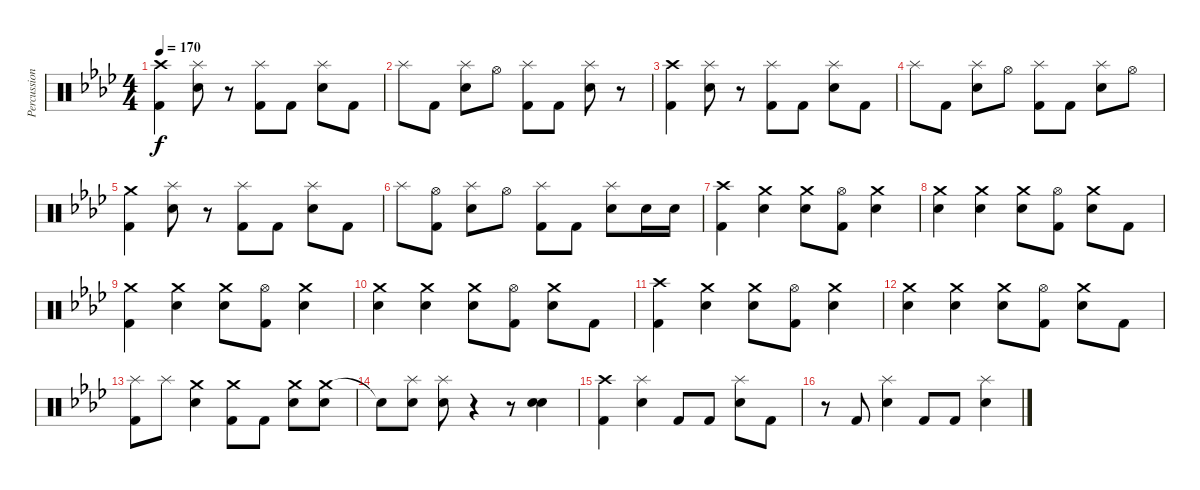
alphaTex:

\track ("Percussion" "Percussion") {instrument percussion}
\staff {score}
\articulation defaults
\ts (4 4)
\tempo 170
\clef neutral
\ks ab
("Crash high (hit)" "Kick (hit) 2").4{dy f} ("Splash (hit)" "Electric Snare (hit)").8 r.8 ("Splash (hit)" "Kick (hit) 2").8 "Kick (hit) 2".8 ("Splash (hit)" "Electric Snare (hit)").8 "Kick (hit) 2".8 |
"Splash (hit)".8 "Kick (hit) 2".8 ("Splash (hit)" "Electric Snare (hit)").8 "Hi-Hat (open)".8 ("Splash (hit)" "Kick (hit) 2").8 "Kick (hit) 2".8 ("Splash (hit)" "Electric Snare (hit)").8 r.8 |
("Crash high (hit)" "Kick (hit) 2").4 ("Splash (hit)" "Electric Snare (hit)").8 r.8 ("Splash (hit)" "Kick (hit) 2").8 "Kick (hit) 2".8 ("Splash (hit)" "Electric Snare (hit)").8 "Kick (hit) 2".8 |
"Splash (hit)".8 "Kick (hit) 2".8 ("Splash (hit)" "Electric Snare (hit)").8 "Hi-Hat (open)".8 ("Splash (hit)" "Kick (hit) 2").8 "Kick (hit) 2".8 ("Splash (hit)" "Electric Snare (hit)").8 "Hi-Hat (open)".8 |
("Crash medium (hit)" "Kick (hit) 2").4 ("Splash (hit)" "Electric Snare (hit)").8 r.8 ("Splash (hit)" "Kick (hit) 2").8 "Kick (hit) 2".8 ("Splash (hit)" "Electric Snare (hit)").8 "Kick (hit) 2".8 |
"Splash (hit)".8 ("Hi-Hat (open)" "Kick (hit) 2").8 ("Splash (hit)" "Electric Snare (hit)").8 "Hi-Hat (open)".8 ("Splash (hit)" "Kick (hit) 2").8 "Kick (hit) 2".8 ("Splash (hit)" "Electric Snare (hit)").8 "Electric Snare (hit)".16 "Electric Snare (hit)".16 |
("Crash high (hit)" "Kick (hit) 2").4 ("Crash medium (hit)" "Electric Snare (hit)").4 ("Crash medium (hit)" "Electric Snare (hit)").8 ("Hi-Hat (open)" "Kick (hit) 2").8 ("Crash medium (hit)" "Electric Snare (hit)").4 |
("Crash medium (hit)" "Electric Snare (hit)").4 ("Crash medium (hit)" "Electric Snare (hit)").4 ("Crash medium (hit)" "Electric Snare (hit)").8 ("Hi-Hat (open)" "Kick (hit) 2").8 ("Crash medium (hit)" "Electric Snare (hit)").8 "Kick (hit) 2".8 |
("Crash medium (hit)" "Kick (hit) 2").4 ("Crash medium (hit)" "Electric Snare (hit)").4 ("Crash medium (hit)" "Electric Snare (hit)").8 ("Hi-Hat (open)" "Kick (hit) 2").8 ("Crash medium (hit)" "Electric Snare (hit)").4 |
("Crash medium (hit)" "Electric Snare (hit)").4 ("Crash medium (hit)" "Electric Snare (hit)").4 ("Crash medium (hit)" "Electric Snare (hit)").8 ("Hi-Hat (open)" "Kick (hit) 2").8 ("Crash medium (hit)" "Electric Snare (hit)").8 "Kick (hit) 2".8 |
("Crash high (hit)" "Kick (hit) 2").4 ("Crash medium (hit)" "Electric Snare (hit)").4 ("Crash medium (hit)" "Electric Snare (hit)").8 ("Hi-Hat (open)" "Kick (hit) 2").8 ("Crash medium (hit)" "Electric Snare (hit)").4 |
("Crash medium (hit)" "Electric Snare (hit)").4 ("Crash medium (hit)" "Electric Snare (hit)").4 ("Crash medium (hit)" "Electric Snare (hit)").8 ("Hi-Hat (open)" "Kick (hit) 2").8 ("Crash medium (hit)" "Electric Snare (hit)").8 "Kick (hit) 2".8 |
("Splash (hit)" "Kick (hit) 2").8 "Splash (hit)".8 ("Crash medium (hit)" "Electric Snare (hit)").4 ("Crash medium (hit)" "Kick (hit) 2").8 "Kick (hit) 2".8 ("Crash medium (hit)" "Electric Snare (hit)").8 ("Crash medium (hit)" "Electric Snare (hit)").8 |
"Snare (hit)"{t}.8 ("Splash (hit)" "Electric Snare (hit)").8 ("Splash (hit)" "Electric Snare (hit)").8 r.4 r.8 ("Electric Snare (hit)" "Electric Snare (hit)").4 |
("Crash high (hit)" "Kick (hit) 2").4 ("Splash (hit)" "Electric Snare (hit)").4 "Kick (hit) 2".8 "Kick (hit) 2".8 ("Splash (hit)" "Electric Snare (hit)").8 "Kick (hit) 2".8 |
r.8 "Kick (hit) 2".8 ("Splash (hit)" "Electric Snare (hit)").4 "Kick (hit) 2".8 "Kick (hit) 2".8 ("Splash (hit)" "Electric Snare (hit)").4
